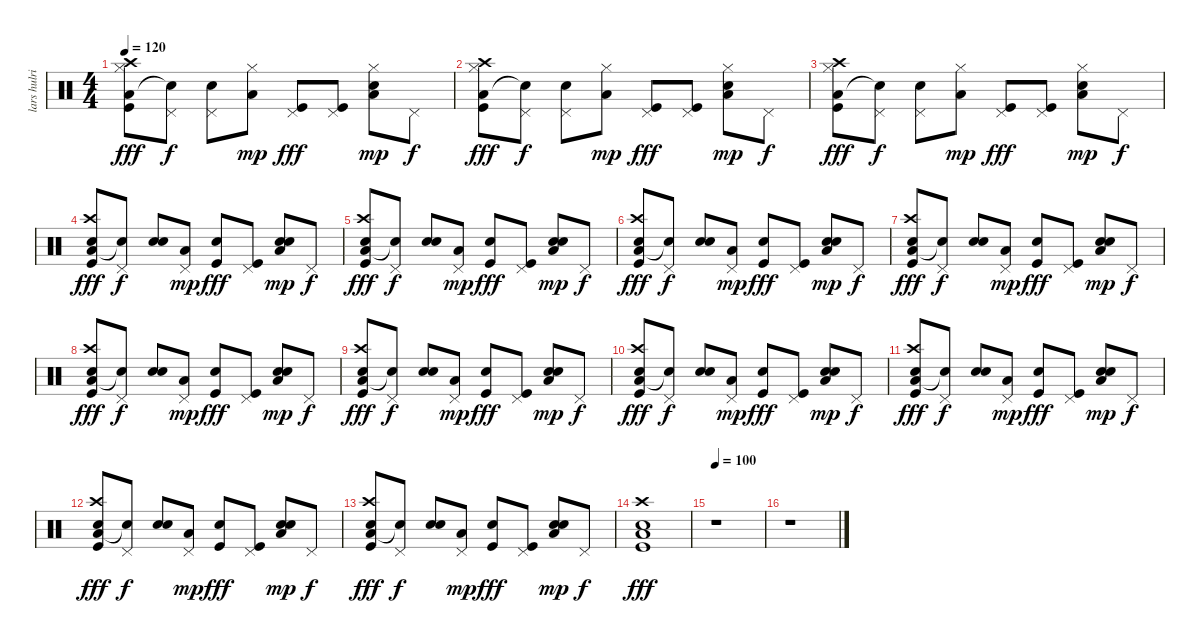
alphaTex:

\track ("lars hulrich" "lars hulri") {instrument percussion}
\staff {score}
\articulation defaults
\ts (4 4)
\tempo 120
\clef neutral
\ks c
("Hi-Hat (closed)" "Low Floor Tom (hit)" "Crash high (hit)" "Kick (hit)").8{dy fff} ("Pedal Hi-Hat (hit)" "Snare (hit)"{t}).8{dy f} ("Pedal Hi-Hat (hit)" "Electric Snare (hit)").8 ("Hi-Hat (closed)" "Low Floor Tom (hit)").8{dy mp} ("Pedal Hi-Hat (hit)" "Kick (hit)").8{dy fff} ("Pedal Hi-Hat (hit)" "Kick (hit)").8 ("Hi-Hat (closed)" "Low Floor Tom (hit)" "Electric Snare (hit)").8{dy mp} "Pedal Hi-Hat (hit)".8{dy f} |
("Hi-Hat (closed)" "Low Floor Tom (hit)" "Crash high (hit)" "Kick (hit)").8{dy fff} ("Pedal Hi-Hat (hit)" "Snare (hit)"{t}).8{dy f} ("Pedal Hi-Hat (hit)" "Electric Snare (hit)").8 ("Hi-Hat (closed)" "Low Floor Tom (hit)").8{dy mp} ("Pedal Hi-Hat (hit)" "Kick (hit)").8{dy fff} ("Pedal Hi-Hat (hit)" "Kick (hit)").8 ("Hi-Hat (closed)" "Low Floor Tom (hit)" "Electric Snare (hit)").8{dy mp} "Pedal Hi-Hat (hit)".8{dy f} |
("Hi-Hat (closed)" "Low Floor Tom (hit)" "Crash high (hit)" "Kick (hit)").8{dy fff} ("Pedal Hi-Hat (hit)" "Snare (hit)"{t}).8{dy f} ("Pedal Hi-Hat (hit)" "Electric Snare (hit)").8 ("Hi-Hat (closed)" "Low Floor Tom (hit)").8{dy mp} ("Pedal Hi-Hat (hit)" "Kick (hit)").8{dy fff} ("Pedal Hi-Hat (hit)" "Kick (hit)").8 ("Hi-Hat (closed)" "Low Floor Tom (hit)" "Electric Snare (hit)").8{dy mp} "Pedal Hi-Hat (hit)".8{dy f} |
("Snare (hit) 2" "Low Floor Tom (hit)" "Crash high (hit)" "Kick (hit)").8{dy fff} ("Pedal Hi-Hat (hit)" "Snare (hit)"{t}).8{dy f} ("Snare (hit) 2" "Electric Snare (hit)").8 ("Pedal Hi-Hat (hit)" "Low Floor Tom (hit)").8{dy mp} ("Snare (hit) 2" "Kick (hit)").8{dy fff} ("Pedal Hi-Hat (hit)" "Kick (hit)").8 ("Snare (hit) 2" "Low Floor Tom (hit)" "Electric Snare (hit)").8{dy mp} "Pedal Hi-Hat (hit)".8{dy f} |
("Snare (hit) 2" "Low Floor Tom (hit)" "Crash high (hit)" "Kick (hit)").8{dy fff} ("Pedal Hi-Hat (hit)" "Snare (hit)"{t}).8{dy f} ("Snare (hit) 2" "Electric Snare (hit)").8 ("Pedal Hi-Hat (hit)" "Low Floor Tom (hit)").8{dy mp} ("Snare (hit) 2" "Kick (hit)").8{dy fff} ("Pedal Hi-Hat (hit)" "Kick (hit)").8 ("Snare (hit) 2" "Low Floor Tom (hit)" "Electric Snare (hit)").8{dy mp} "Pedal Hi-Hat (hit)".8{dy f} |
("Snare (hit) 2" "Low Floor Tom (hit)" "Crash high (hit)" "Kick (hit)").8{dy fff} ("Pedal Hi-Hat (hit)" "Snare (hit)"{t}).8{dy f} ("Snare (hit) 2" "Electric Snare (hit)").8 ("Pedal Hi-Hat (hit)" "Low Floor Tom (hit)").8{dy mp} ("Snare (hit) 2" "Kick (hit)").8{dy fff} ("Pedal Hi-Hat (hit)" "Kick (hit)").8 ("Snare (hit) 2" "Low Floor Tom (hit)" "Electric Snare (hit)").8{dy mp} "Pedal Hi-Hat (hit)".8{dy f} |
("Snare (hit) 2" "Low Floor Tom (hit)" "Crash high (hit)" "Kick (hit)").8{dy fff} ("Pedal Hi-Hat (hit)" "Snare (hit)"{t}).8{dy f} ("Snare (hit) 2" "Electric Snare (hit)").8 ("Pedal Hi-Hat (hit)" "Low Floor Tom (hit)").8{dy mp} ("Snare (hit) 2" "Kick (hit)").8{dy fff} ("Pedal Hi-Hat (hit)" "Kick (hit)").8 ("Snare (hit) 2" "Low Floor Tom (hit)" "Electric Snare (hit)").8{dy mp} "Pedal Hi-Hat (hit)".8{dy f} |
("Snare (hit) 2" "Low Floor Tom (hit)" "Crash high (hit)" "Kick (hit)").8{dy fff} ("Pedal Hi-Hat (hit)" "Snare (hit)"{t}).8{dy f} ("Snare (hit) 2" "Electric Snare (hit)").8 ("Pedal Hi-Hat (hit)" "Low Floor Tom (hit)").8{dy mp} ("Snare (hit) 2" "Kick (hit)").8{dy fff} ("Pedal Hi-Hat (hit)" "Kick (hit)").8 ("Snare (hit) 2" "Low Floor Tom (hit)" "Electric Snare (hit)").8{dy mp} "Pedal Hi-Hat (hit)".8{dy f} |
("Snare (hit) 2" "Low Floor Tom (hit)" "Crash high (hit)" "Kick (hit)").8{dy fff} ("Pedal Hi-Hat (hit)" "Snare (hit)"{t}).8{dy f} ("Snare (hit) 2" "Electric Snare (hit)").8 ("Pedal Hi-Hat (hit)" "Low Floor Tom (hit)").8{dy mp} ("Snare (hit) 2" "Kick (hit)").8{dy fff} ("Pedal Hi-Hat (hit)" "Kick (hit)").8 ("Snare (hit) 2" "Low Floor Tom (hit)" "Electric Snare (hit)").8{dy mp} "Pedal Hi-Hat (hit)".8{dy f} |
("Snare (hit) 2" "Low Floor Tom (hit)" "Crash high (hit)" "Kick (hit)").8{dy fff} ("Pedal Hi-Hat (hit)" "Snare (hit)"{t}).8{dy f} ("Snare (hit) 2" "Electric Snare (hit)").8 ("Pedal Hi-Hat (hit)" "Low Floor Tom (hit)").8{dy mp} ("Snare (hit) 2" "Kick (hit)").8{dy fff} ("Pedal Hi-Hat (hit)" "Kick (hit)").8 ("Snare (hit) 2" "Low Floor Tom (hit)" "Electric Snare (hit)").8{dy mp} "Pedal Hi-Hat (hit)".8{dy f} |
("Snare (hit) 2" "Low Floor Tom (hit)" "Crash high (hit)" "Kick (hit)").8{dy fff} ("Pedal Hi-Hat (hit)" "Snare (hit)"{t}).8{dy f} ("Snare (hit) 2" "Electric Snare (hit)").8 ("Pedal Hi-Hat (hit)" "Low Floor Tom (hit)").8{dy mp} ("Snare (hit) 2" "Kick (hit)").8{dy fff} ("Pedal Hi-Hat (hit)" "Kick (hit)").8 ("Snare (hit) 2" "Low Floor Tom (hit)" "Electric Snare (hit)").8{dy mp} "Pedal Hi-Hat (hit)".8{dy f} |
("Snare (hit) 2" "Low Floor Tom (hit)" "Crash high (hit)" "Kick (hit)").8{dy fff} ("Pedal Hi-Hat (hit)" "Snare (hit)"{t}).8{dy f} ("Snare (hit) 2" "Electric Snare (hit)").8 ("Pedal Hi-Hat (hit)" "Low Floor Tom (hit)").8{dy mp} ("Snare (hit) 2" "Kick (hit)").8{dy fff} ("Pedal Hi-Hat (hit)" "Kick (hit)").8 ("Snare (hit) 2" "Low Floor Tom (hit)" "Electric Snare (hit)").8{dy mp} "Pedal Hi-Hat (hit)".8{dy f} |
("Snare (hit) 2" "Low Floor Tom (hit)" "Crash high (hit)" "Kick (hit)").8{dy fff} ("Pedal Hi-Hat (hit)" "Snare (hit)"{t}).8{dy f} ("Snare (hit) 2" "Electric Snare (hit)").8 ("Pedal Hi-Hat (hit)" "Low Floor Tom (hit)").8{dy mp} ("Snare (hit) 2" "Kick (hit)").8{dy fff} ("Pedal Hi-Hat (hit)" "Kick (hit)").8 ("Snare (hit) 2" "Low Floor Tom (hit)" "Electric Snare (hit)").8{dy mp} "Pedal Hi-Hat (hit)".8{dy f} |
("Snare (hit) 2" "Low Floor Tom (hit)" "Crash high (hit)" "Kick (hit)").1{dy fff} |
\tempo 100
r.1 |
r.1
